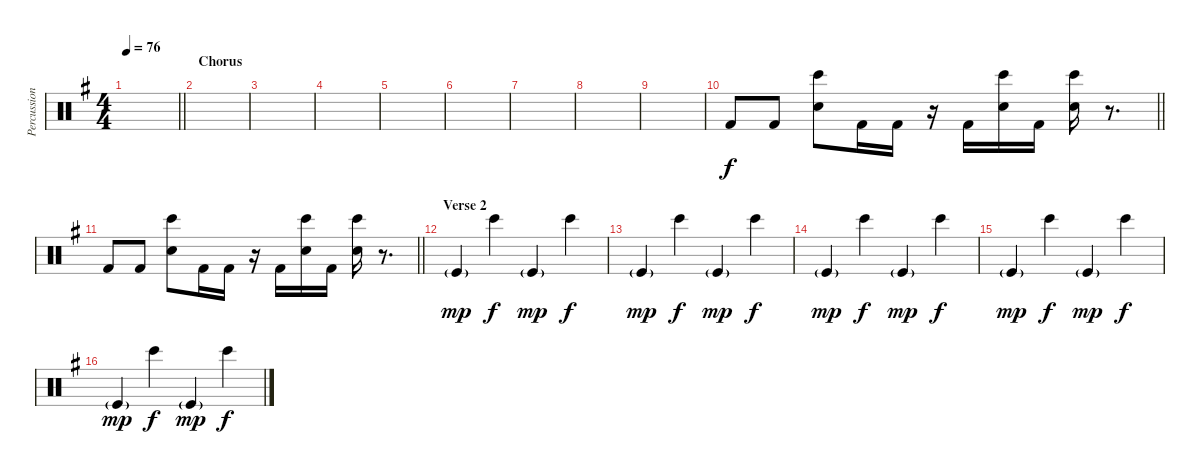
\track ("Percussion(Synth)" "Percussion") {instrument percussion}
\staff {score}
\articulation defaults
\ts (4 4)
\tempo 76
\clef neutral
\barLineRight lightlight
\ks g
|
\section ("" "Chorus")
|
|
|
|
|
|
|
|
\barLineRight lightlight "Kick (hit) 2".8{volume 9} "Kick (hit) 2".8
("Bongo High (hit)" "Snare (hit) 2").8 "Kick (hit) 2".16 "Kick (hit) 2".16 r.16 "Kick (hit) 2".16 ("Bongo High (hit)" "Snare (hit) 2").16 "Kick (hit) 2".16 ("Bongo High (hit)" "Snare (hit) 2").16 r.8{d} |
\barLineRight lightlight "Kick (hit) 2".8 "Kick (hit) 2".8
("Bongo High (hit)" "Snare (hit) 2").8 "Kick (hit) 2".16 "Kick (hit) 2".16 r.16 "Kick (hit) 2".16 ("Bongo High (hit)" "Snare (hit) 2").16 "Kick (hit) 2".16 ("Bongo High (hit)" "Snare (hit) 2").16 r.8{d} |
\section ("" "Verse 2")
"Kick (hit)"{g}.4{dy mp volume 14} "Bongo High (hit)".4{dy f} "Kick (hit)"{g}.4{dy mp} "Bongo High (hit)".4{dy f} |
"Kick (hit)"{g}.4{dy mp} "Bongo High (hit)".4{dy f} "Kick (hit)"{g}.4{dy mp} "Bongo High (hit)".4{dy f} |
"Kick (hit)"{g}.4{dy mp} "Bongo High (hit)".4{dy f} "Kick (hit)"{g}.4{dy mp} "Bongo High (hit)".4{dy f} |
"Kick (hit)"{g}.4{dy mp} "Bongo High (hit)".4{dy f} "Kick (hit)"{g}.4{dy mp} "Bongo High (hit)".4{dy f} |
"Kick (hit)"{g}.4{dy mp} "Bongo High (hit)".4{dy f} "Kick (hit)"{g}.4{dy mp} "Bongo High (hit)".4{dy f}
